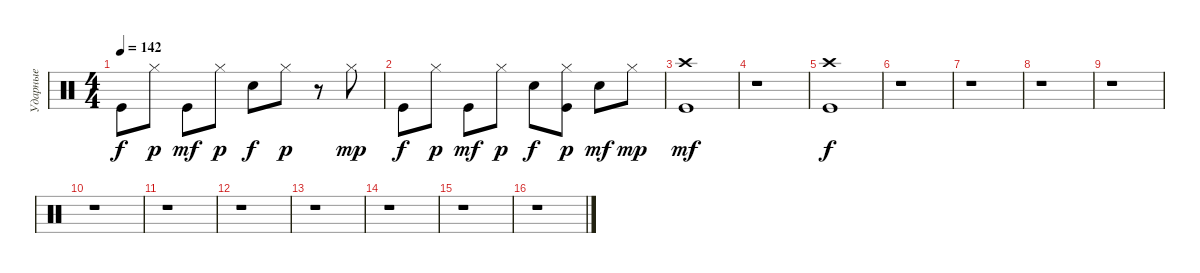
\track ("Ударные" "Ударные") {instrument percussion}
\staff {score}
\articulation defaults
\ts (4 4)
\tempo 142
\clef neutral
\ks c "Kick (hit)".8{dy f} "Hi-Hat (closed)".8{dy p} "Kick (hit)".8{dy mf} "Hi-Hat (closed)".8{dy p} "Snare (hit) 2".8{dy f} "Hi-Hat (closed)".8{dy p}
r.8 "Hi-Hat (closed)".8{dy mp} |
"Kick (hit)".8{dy f} "Hi-Hat (closed)".8{dy p} "Kick (hit)".8{dy mf} "Hi-Hat (closed)".8{dy p} "Snare (hit) 2".8{dy f} ("Kick (hit)" "Hi-Hat (closed)").8{dy p} "Electric Snare (hit)".8{dy mf} "Hi-Hat (closed)".8{dy mp} |
("Crash high (hit)" "Kick (hit)").1{dy mf} |
r.1 |
("Crash high (hit)" "Kick (hit)").1{dy f} |
r.1 |
r.1 |
r.1 |
r.1 |
r.1 |
r.1 |
r.1 |
r.1 |
r.1 |
r.1 |
r.1
